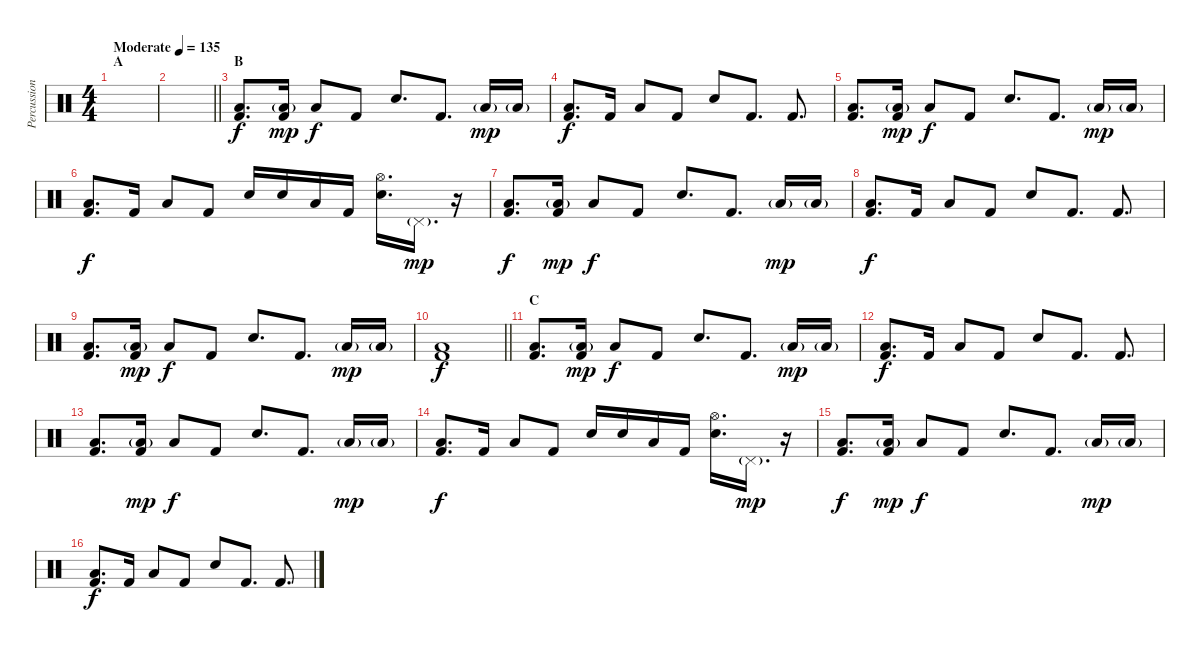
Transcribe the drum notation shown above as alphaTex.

\track ("Percussion" "Percussion") {instrument percussion}
\staff {score}
\articulation defaults
\ts (4 4)
\section ("" "A")
\tempo (135 "Moderate")
\clef neutral
\ks c
|
\barLineRight lightlight
|
\section ("" "B")
("Low Floor Tom (hit)" "Kick (hit) 2").8{d} ("Low Floor Tom (hit)"{g} "Kick (hit) 2").16{dy mp} "Low Floor Tom (hit)".8{dy f} "Kick (hit) 2".8 "Electric Snare (hit)".8{d} "Kick (hit) 2".8{d} "Low Floor Tom (hit)"{g}.16{dy mp} "Low Floor Tom (hit)"{g}.16 |
("Low Floor Tom (hit)" "Kick (hit) 2").8{d dy f} "Kick (hit) 2".16 "Low Floor Tom (hit)".8 "Kick (hit) 2".8 "Electric Snare (hit)".8 "Kick (hit) 2".8{d} "Kick (hit) 2".8{d} |
("Low Floor Tom (hit)" "Kick (hit) 2").8{d} ("Low Floor Tom (hit)"{g} "Kick (hit) 2").16{dy mp} "Low Floor Tom (hit)".8{dy f} "Kick (hit) 2".8 "Electric Snare (hit)".8{d} "Kick (hit) 2".8{d} "Low Floor Tom (hit)"{g}.16{dy mp} "Low Floor Tom (hit)"{g}.16 |
("Low Floor Tom (hit)" "Kick (hit) 2").8{d dy f} "Kick (hit) 2".16 "Low Floor Tom (hit)".8 "Kick (hit) 2".8 "Electric Snare (hit)".16 "Electric Snare (hit)".16 "Low Floor Tom (hit)".16 "Kick (hit) 2".16 ("Hi-Hat (open)" "Electric Snare (hit)").16{d} "Pedal Hi-Hat (hit)"{g}.16{d dy mp} r.16 |
("Low Floor Tom (hit)" "Kick (hit) 2").8{d dy f} ("Low Floor Tom (hit)"{g} "Kick (hit) 2").16{dy mp} "Low Floor Tom (hit)".8{dy f} "Kick (hit) 2".8 "Electric Snare (hit)".8{d} "Kick (hit) 2".8{d} "Low Floor Tom (hit)"{g}.16{dy mp} "Low Floor Tom (hit)"{g}.16 |
("Low Floor Tom (hit)" "Kick (hit) 2").8{d dy f} "Kick (hit) 2".16 "Low Floor Tom (hit)".8 "Kick (hit) 2".8 "Electric Snare (hit)".8 "Kick (hit) 2".8{d} "Kick (hit) 2".8{d} |
("Low Floor Tom (hit)" "Kick (hit) 2").8{d} ("Low Floor Tom (hit)"{g} "Kick (hit) 2").16{dy mp} "Low Floor Tom (hit)".8{dy f} "Kick (hit) 2".8 "Electric Snare (hit)".8{d} "Kick (hit) 2".8{d} "Low Floor Tom (hit)"{g}.16{dy mp} "Low Floor Tom (hit)"{g}.16 |
\barLineRight lightlight
("Low Floor Tom (hit)" "Kick (hit) 2").1{dy f} |
\section ("" "C")
("Low Floor Tom (hit)" "Kick (hit) 2").8{d} ("Low Floor Tom (hit)"{g} "Kick (hit) 2").16{dy mp} "Low Floor Tom (hit)".8{dy f} "Kick (hit) 2".8 "Electric Snare (hit)".8{d} "Kick (hit) 2".8{d} "Low Floor Tom (hit)"{g}.16{dy mp} "Low Floor Tom (hit)"{g}.16 |
("Low Floor Tom (hit)" "Kick (hit) 2").8{d dy f} "Kick (hit) 2".16 "Low Floor Tom (hit)".8 "Kick (hit) 2".8 "Electric Snare (hit)".8 "Kick (hit) 2".8{d} "Kick (hit) 2".8{d} |
("Low Floor Tom (hit)" "Kick (hit) 2").8{d} ("Low Floor Tom (hit)"{g} "Kick (hit) 2").16{dy mp} "Low Floor Tom (hit)".8{dy f} "Kick (hit) 2".8 "Electric Snare (hit)".8{d} "Kick (hit) 2".8{d} "Low Floor Tom (hit)"{g}.16{dy mp} "Low Floor Tom (hit)"{g}.16 |
("Low Floor Tom (hit)" "Kick (hit) 2").8{d dy f} "Kick (hit) 2".16 "Low Floor Tom (hit)".8 "Kick (hit) 2".8 "Electric Snare (hit)".16 "Electric Snare (hit)".16 "Low Floor Tom (hit)".16 "Kick (hit) 2".16 ("Hi-Hat (open)" "Electric Snare (hit)").16{d} "Pedal Hi-Hat (hit)"{g}.16{d dy mp} r.16 |
("Low Floor Tom (hit)" "Kick (hit) 2").8{d dy f} ("Low Floor Tom (hit)"{g} "Kick (hit) 2").16{dy mp} "Low Floor Tom (hit)".8{dy f} "Kick (hit) 2".8 "Electric Snare (hit)".8{d} "Kick (hit) 2".8{d} "Low Floor Tom (hit)"{g}.16{dy mp} "Low Floor Tom (hit)"{g}.16 |
("Low Floor Tom (hit)" "Kick (hit) 2").8{d dy f} "Kick (hit) 2".16 "Low Floor Tom (hit)".8 "Kick (hit) 2".8 "Electric Snare (hit)".8 "Kick (hit) 2".8{d} "Kick (hit) 2".8{d}
